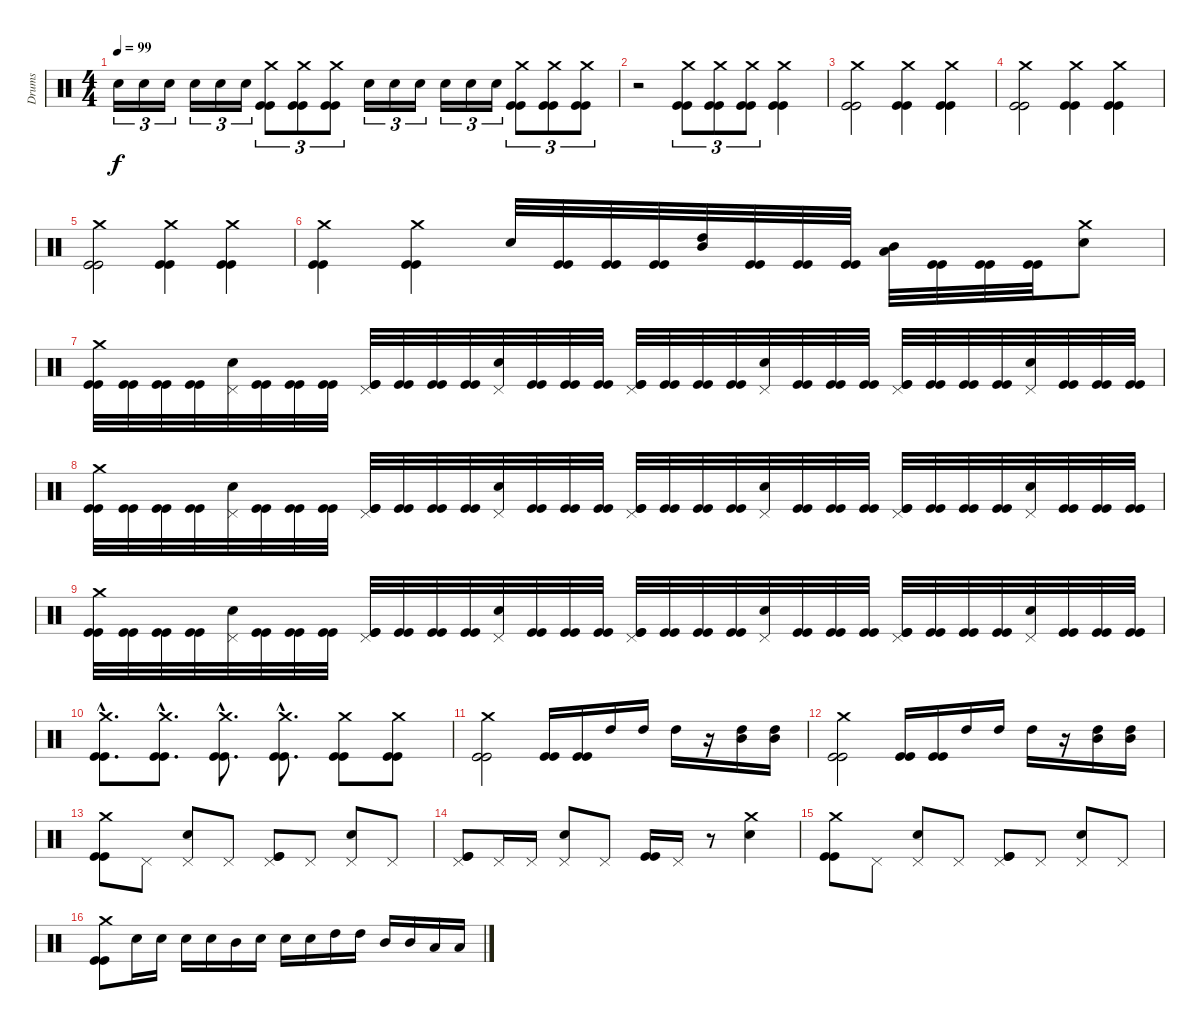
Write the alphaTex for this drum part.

\track ("Drums" "Drums") {instrument percussion}
\staff {score}
\articulation defaults
\ts (4 4)
\tempo 99
\clef neutral
\ks c "Snare (hit) 2".16{tu (3 2) dy f} "Snare (hit) 2".16{tu (3 2)} "Snare (hit) 2".16{tu (3 2)} "Snare (hit) 2".16{tu (3 2)} "Snare (hit) 2".16{tu (3 2)} "Snare (hit) 2".16{tu (3 2)}
("Crash medium (hit)" "Kick (hit)" "Kick (hit)").8{tu (3 2)} ("Crash medium (hit)" "Kick (hit)" "Kick (hit)").8{tu (3 2)} ("Crash medium (hit)" "Kick (hit)" "Kick (hit)").8{tu (3 2)} "Snare (hit) 2".16{tu (3 2)} "Snare (hit) 2".16{tu (3 2)} "Snare (hit) 2".16{tu (3 2)} "Snare (hit) 2".16{tu (3 2)} "Snare (hit) 2".16{tu (3 2)} "Snare (hit) 2".16{tu (3 2)} ("Crash medium (hit)" "Kick (hit)" "Kick (hit)").8{tu (3 2)} ("Crash medium (hit)" "Kick (hit)" "Kick (hit)").8{tu (3 2)} ("Crash medium (hit)" "Kick (hit)" "Kick (hit)").8{tu (3 2)} |
r.2 ("Crash medium (hit)" "Kick (hit)" "Kick (hit)").8{tu (3 2)} ("Crash medium (hit)" "Kick (hit)" "Kick (hit)").8{tu (3 2)} ("Crash medium (hit)" "Kick (hit)" "Kick (hit)").8{tu (3 2)} ("Crash medium (hit)" "Kick (hit)" "Kick (hit)").4 |
("Crash medium (hit)" "Kick (hit)" "Kick (hit)").2 ("Crash medium (hit)" "Kick (hit)" "Kick (hit)").4 ("Crash medium (hit)" "Kick (hit)" "Kick (hit)").4 |
("Crash medium (hit)" "Kick (hit)" "Kick (hit)").2 ("Crash medium (hit)" "Kick (hit)" "Kick (hit)").4 ("Crash medium (hit)" "Kick (hit)" "Kick (hit)").4 |
("Crash medium (hit)" "Kick (hit)" "Kick (hit)").2 ("Crash medium (hit)" "Kick (hit)" "Kick (hit)").4 ("Crash medium (hit)" "Kick (hit)" "Kick (hit)").4 |
("Crash medium (hit)" "Kick (hit)" "Kick (hit)").4 ("Crash medium (hit)" "Kick (hit)" "Kick (hit)").4 "Snare (hit) 2".32 ("Kick (hit)" "Kick (hit)").32 ("Kick (hit)" "Kick (hit)").32 ("Kick (hit)" "Kick (hit)").32 ("High Tom (hit)" "Mid Tom (hit)").32 ("Kick (hit)" "Kick (hit)").32 ("Kick (hit)" "Kick (hit)").32 ("Kick (hit)" "Kick (hit)").32 ("Mid Tom (hit)" "Low Tom (hit)").32 ("Kick (hit)" "Kick (hit)").32 ("Kick (hit)" "Kick (hit)").32 ("Kick (hit)" "Kick (hit)").32 ("Crash medium (hit)" "Snare (hit) 2").8 |
("Crash medium (hit)" "Kick (hit)" "Kick (hit)").32 ("Kick (hit)" "Kick (hit)").32 ("Kick (hit)" "Kick (hit)").32 ("Kick (hit)" "Kick (hit)").32 ("Pedal Hi-Hat (hit)" "Snare (hit) 2").32 ("Kick (hit)" "Kick (hit)").32 ("Kick (hit)" "Kick (hit)").32 ("Kick (hit)" "Kick (hit)").32 ("Pedal Hi-Hat (hit)" "Kick (hit)" "Kick (hit)").32 ("Kick (hit)" "Kick (hit)").32 ("Kick (hit)" "Kick (hit)").32 ("Kick (hit)" "Kick (hit)").32 ("Pedal Hi-Hat (hit)" "Snare (hit) 2").32 ("Kick (hit)" "Kick (hit)").32 ("Kick (hit)" "Kick (hit)").32 ("Kick (hit)" "Kick (hit)").32 ("Pedal Hi-Hat (hit)" "Kick (hit)" "Kick (hit)").32 ("Kick (hit)" "Kick (hit)").32 ("Kick (hit)" "Kick (hit)").32 ("Kick (hit)" "Kick (hit)").32 ("Pedal Hi-Hat (hit)" "Snare (hit) 2").32 ("Kick (hit)" "Kick (hit)").32 ("Kick (hit)" "Kick (hit)").32 ("Kick (hit)" "Kick (hit)").32 ("Pedal Hi-Hat (hit)" "Kick (hit)" "Kick (hit)").32 ("Kick (hit)" "Kick (hit)").32 ("Kick (hit)" "Kick (hit)").32 ("Kick (hit)" "Kick (hit)").32 ("Pedal Hi-Hat (hit)" "Snare (hit) 2").32 ("Kick (hit)" "Kick (hit)").32 ("Kick (hit)" "Kick (hit)").32 ("Kick (hit)" "Kick (hit)").32 |
("Crash medium (hit)" "Kick (hit)" "Kick (hit)").32 ("Kick (hit)" "Kick (hit)").32 ("Kick (hit)" "Kick (hit)").32 ("Kick (hit)" "Kick (hit)").32 ("Pedal Hi-Hat (hit)" "Snare (hit) 2").32 ("Kick (hit)" "Kick (hit)").32 ("Kick (hit)" "Kick (hit)").32 ("Kick (hit)" "Kick (hit)").32 ("Pedal Hi-Hat (hit)" "Kick (hit)" "Kick (hit)").32 ("Kick (hit)" "Kick (hit)").32 ("Kick (hit)" "Kick (hit)").32 ("Kick (hit)" "Kick (hit)").32 ("Pedal Hi-Hat (hit)" "Snare (hit) 2").32 ("Kick (hit)" "Kick (hit)").32 ("Kick (hit)" "Kick (hit)").32 ("Kick (hit)" "Kick (hit)").32 ("Pedal Hi-Hat (hit)" "Kick (hit)" "Kick (hit)").32 ("Kick (hit)" "Kick (hit)").32 ("Kick (hit)" "Kick (hit)").32 ("Kick (hit)" "Kick (hit)").32 ("Pedal Hi-Hat (hit)" "Snare (hit) 2").32 ("Kick (hit)" "Kick (hit)").32 ("Kick (hit)" "Kick (hit)").32 ("Kick (hit)" "Kick (hit)").32 ("Pedal Hi-Hat (hit)" "Kick (hit)" "Kick (hit)").32 ("Kick (hit)" "Kick (hit)").32 ("Kick (hit)" "Kick (hit)").32 ("Kick (hit)" "Kick (hit)").32 ("Pedal Hi-Hat (hit)" "Snare (hit) 2").32 ("Kick (hit)" "Kick (hit)").32 ("Kick (hit)" "Kick (hit)").32 ("Kick (hit)" "Kick (hit)").32 |
("Crash medium (hit)" "Kick (hit)" "Kick (hit)").32 ("Kick (hit)" "Kick (hit)").32 ("Kick (hit)" "Kick (hit)").32 ("Kick (hit)" "Kick (hit)").32 ("Pedal Hi-Hat (hit)" "Snare (hit) 2").32 ("Kick (hit)" "Kick (hit)").32 ("Kick (hit)" "Kick (hit)").32 ("Kick (hit)" "Kick (hit)").32 ("Pedal Hi-Hat (hit)" "Kick (hit)" "Kick (hit)").32 ("Kick (hit)" "Kick (hit)").32 ("Kick (hit)" "Kick (hit)").32 ("Kick (hit)" "Kick (hit)").32 ("Pedal Hi-Hat (hit)" "Snare (hit) 2").32 ("Kick (hit)" "Kick (hit)").32 ("Kick (hit)" "Kick (hit)").32 ("Kick (hit)" "Kick (hit)").32 ("Pedal Hi-Hat (hit)" "Kick (hit)" "Kick (hit)").32 ("Kick (hit)" "Kick (hit)").32 ("Kick (hit)" "Kick (hit)").32 ("Kick (hit)" "Kick (hit)").32 ("Pedal Hi-Hat (hit)" "Snare (hit) 2").32 ("Kick (hit)" "Kick (hit)").32 ("Kick (hit)" "Kick (hit)").32 ("Kick (hit)" "Kick (hit)").32 ("Pedal Hi-Hat (hit)" "Kick (hit)" "Kick (hit)").32 ("Kick (hit)" "Kick (hit)").32 ("Kick (hit)" "Kick (hit)").32 ("Kick (hit)" "Kick (hit)").32 ("Pedal Hi-Hat (hit)" "Snare (hit) 2").32 ("Kick (hit)" "Kick (hit)").32 ("Kick (hit)" "Kick (hit)").32 ("Kick (hit)" "Kick (hit)").32 |
("Crash medium (hit)"{hac} "Kick (hit)"{hac} "Kick (hit)"{hac}).8{d} ("Crash medium (hit)"{hac} "Kick (hit)"{hac} "Kick (hit)"{hac}).8{d} ("Crash medium (hit)"{hac} "Kick (hit)"{hac} "Kick (hit)"{hac}).8{d} ("Crash medium (hit)"{hac} "Kick (hit)"{hac} "Kick (hit)"{hac}).8{d} ("Crash medium (hit)" "Kick (hit)" "Kick (hit)").8 ("Crash medium (hit)" "Kick (hit)" "Kick (hit)").8 |
("Crash medium (hit)" "Kick (hit)" "Kick (hit)").2 ("Kick (hit)" "Kick (hit)").16 ("Kick (hit)" "Kick (hit)").16 "High Tom (hit)".16 "High Tom (hit)".16 "High Tom (hit)".16 r.16 ("High Tom (hit)" "Mid Tom (hit)").16 ("High Tom (hit)" "Mid Tom (hit)").16 |
("Crash medium (hit)" "Kick (hit)" "Kick (hit)").2 ("Kick (hit)" "Kick (hit)").16 ("Kick (hit)" "Kick (hit)").16 "High Tom (hit)".16 "High Tom (hit)".16 "High Tom (hit)".16 r.16 ("High Tom (hit)" "Mid Tom (hit)").16 ("High Tom (hit)" "Mid Tom (hit)").16 |
("Crash medium (hit)" "Kick (hit)" "Kick (hit)").8 "Pedal Hi-Hat (hit)".8 ("Pedal Hi-Hat (hit)" "Snare (hit) 2").8 "Pedal Hi-Hat (hit)".8 ("Pedal Hi-Hat (hit)" "Kick (hit)" "Kick (hit)").8 "Pedal Hi-Hat (hit)".8 ("Pedal Hi-Hat (hit)" "Snare (hit) 2").8 "Pedal Hi-Hat (hit)".8 |
("Pedal Hi-Hat (hit)" "Kick (hit)" "Kick (hit)").8 "Pedal Hi-Hat (hit)".16 "Pedal Hi-Hat (hit)".16 ("Pedal Hi-Hat (hit)" "Snare (hit) 2").8 "Pedal Hi-Hat (hit)".8 ("Kick (hit)" "Kick (hit)").16 "Pedal Hi-Hat (hit)".16 r.8 ("Crash medium (hit)" "Snare (hit) 2").4 |
("Crash medium (hit)" "Kick (hit)" "Kick (hit)").8 "Pedal Hi-Hat (hit)".8 ("Pedal Hi-Hat (hit)" "Snare (hit) 2").8 "Pedal Hi-Hat (hit)".8 ("Pedal Hi-Hat (hit)" "Kick (hit)" "Kick (hit)").8 "Pedal Hi-Hat (hit)".8 ("Pedal Hi-Hat (hit)" "Snare (hit) 2").8 "Pedal Hi-Hat (hit)".8 |
("Crash medium (hit)" "Kick (hit)" "Kick (hit)").8 "Snare (hit) 2".16 "Snare (hit) 2".16 "Snare (hit) 2".16 "Snare (hit) 2".16 "Mid Tom (hit)".16 "Snare (hit) 2".16 "Snare (hit) 2".16 "Snare (hit) 2".16 "High Tom (hit)".16 "High Tom (hit)".16 "Mid Tom (hit)".16 "Mid Tom (hit)".16 "Low Tom (hit)".16 "Low Tom (hit)".16
